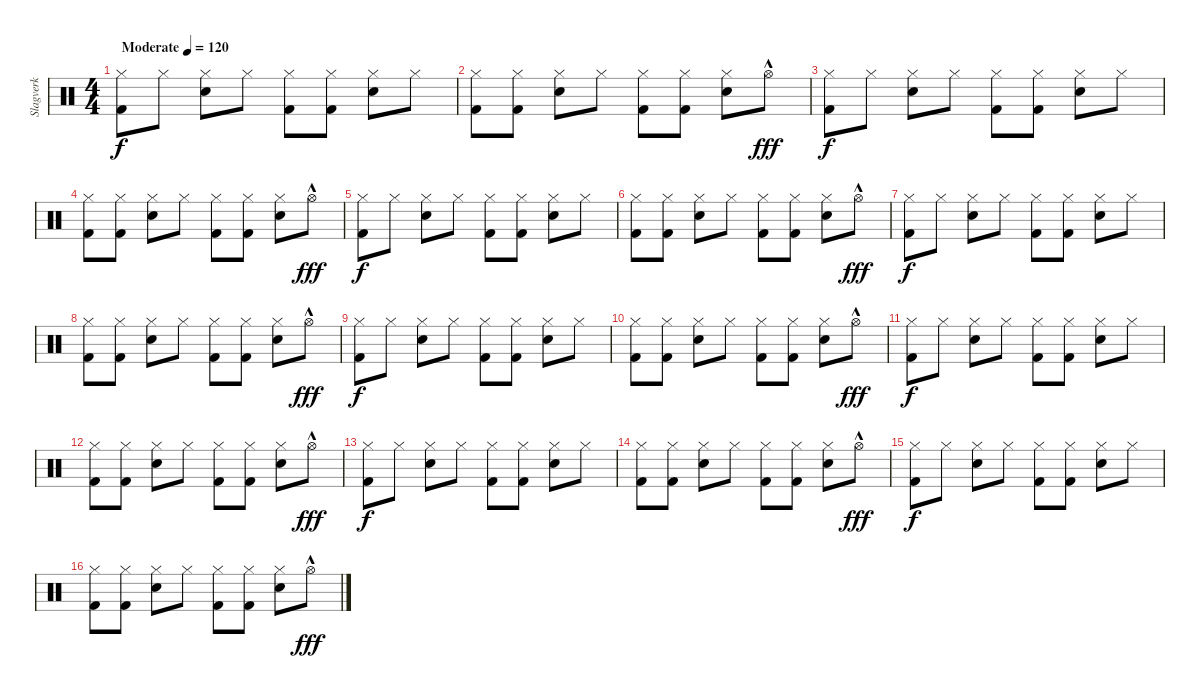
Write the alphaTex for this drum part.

\track ("Slagverk" "Slagverk") {instrument percussion}
\staff {score}
\articulation defaults
\ts (4 4)
\tempo (120 "Moderate")
\clef neutral
\ks c
("Hi-Hat (closed)" "Kick (hit) 2").8{dy f} "Hi-Hat (closed)".8 ("Hi-Hat (closed)" "Snare (hit) 2").8 "Hi-Hat (closed)".8 ("Hi-Hat (closed)" "Kick (hit) 2").8 ("Hi-Hat (closed)" "Kick (hit) 2").8 ("Hi-Hat (closed)" "Snare (hit) 2").8 "Hi-Hat (closed)".8 |
("Hi-Hat (closed)" "Kick (hit) 2").8 ("Hi-Hat (closed)" "Kick (hit) 2").8 ("Hi-Hat (closed)" "Snare (hit) 2").8 "Hi-Hat (closed)".8 ("Hi-Hat (closed)" "Kick (hit) 2").8 ("Hi-Hat (closed)" "Kick (hit) 2").8 ("Hi-Hat (closed)" "Snare (hit) 2").8 "Hi-Hat (open)"{hac}.8{dy fff} |
("Hi-Hat (closed)" "Kick (hit) 2").8{dy f} "Hi-Hat (closed)".8 ("Hi-Hat (closed)" "Snare (hit) 2").8 "Hi-Hat (closed)".8 ("Hi-Hat (closed)" "Kick (hit) 2").8 ("Hi-Hat (closed)" "Kick (hit) 2").8 ("Hi-Hat (closed)" "Snare (hit) 2").8 "Hi-Hat (closed)".8 |
("Hi-Hat (closed)" "Kick (hit) 2").8 ("Hi-Hat (closed)" "Kick (hit) 2").8 ("Hi-Hat (closed)" "Snare (hit) 2").8 "Hi-Hat (closed)".8 ("Hi-Hat (closed)" "Kick (hit) 2").8 ("Hi-Hat (closed)" "Kick (hit) 2").8 ("Hi-Hat (closed)" "Snare (hit) 2").8 "Hi-Hat (open)"{hac}.8{dy fff} |
("Hi-Hat (closed)" "Kick (hit) 2").8{dy f} "Hi-Hat (closed)".8 ("Hi-Hat (closed)" "Snare (hit) 2").8 "Hi-Hat (closed)".8 ("Hi-Hat (closed)" "Kick (hit) 2").8 ("Hi-Hat (closed)" "Kick (hit) 2").8 ("Hi-Hat (closed)" "Snare (hit) 2").8 "Hi-Hat (closed)".8 |
("Hi-Hat (closed)" "Kick (hit) 2").8 ("Hi-Hat (closed)" "Kick (hit) 2").8 ("Hi-Hat (closed)" "Snare (hit) 2").8 "Hi-Hat (closed)".8 ("Hi-Hat (closed)" "Kick (hit) 2").8 ("Hi-Hat (closed)" "Kick (hit) 2").8 ("Hi-Hat (closed)" "Snare (hit) 2").8 "Hi-Hat (open)"{hac}.8{dy fff} |
("Hi-Hat (closed)" "Kick (hit) 2").8{dy f} "Hi-Hat (closed)".8 ("Hi-Hat (closed)" "Snare (hit) 2").8 "Hi-Hat (closed)".8 ("Hi-Hat (closed)" "Kick (hit) 2").8 ("Hi-Hat (closed)" "Kick (hit) 2").8 ("Hi-Hat (closed)" "Snare (hit) 2").8 "Hi-Hat (closed)".8 |
("Hi-Hat (closed)" "Kick (hit) 2").8 ("Hi-Hat (closed)" "Kick (hit) 2").8 ("Hi-Hat (closed)" "Snare (hit) 2").8 "Hi-Hat (closed)".8 ("Hi-Hat (closed)" "Kick (hit) 2").8 ("Hi-Hat (closed)" "Kick (hit) 2").8 ("Hi-Hat (closed)" "Snare (hit) 2").8 "Hi-Hat (open)"{hac}.8{dy fff} |
("Hi-Hat (closed)" "Kick (hit) 2").8{dy f} "Hi-Hat (closed)".8 ("Hi-Hat (closed)" "Snare (hit) 2").8 "Hi-Hat (closed)".8 ("Hi-Hat (closed)" "Kick (hit) 2").8 ("Hi-Hat (closed)" "Kick (hit) 2").8 ("Hi-Hat (closed)" "Snare (hit) 2").8 "Hi-Hat (closed)".8 |
("Hi-Hat (closed)" "Kick (hit) 2").8 ("Hi-Hat (closed)" "Kick (hit) 2").8 ("Hi-Hat (closed)" "Snare (hit) 2").8 "Hi-Hat (closed)".8 ("Hi-Hat (closed)" "Kick (hit) 2").8 ("Hi-Hat (closed)" "Kick (hit) 2").8 ("Hi-Hat (closed)" "Snare (hit) 2").8 "Hi-Hat (open)"{hac}.8{dy fff} |
("Hi-Hat (closed)" "Kick (hit) 2").8{dy f} "Hi-Hat (closed)".8 ("Hi-Hat (closed)" "Snare (hit) 2").8 "Hi-Hat (closed)".8 ("Hi-Hat (closed)" "Kick (hit) 2").8 ("Hi-Hat (closed)" "Kick (hit) 2").8 ("Hi-Hat (closed)" "Snare (hit) 2").8 "Hi-Hat (closed)".8 |
("Hi-Hat (closed)" "Kick (hit) 2").8 ("Hi-Hat (closed)" "Kick (hit) 2").8 ("Hi-Hat (closed)" "Snare (hit) 2").8 "Hi-Hat (closed)".8 ("Hi-Hat (closed)" "Kick (hit) 2").8 ("Hi-Hat (closed)" "Kick (hit) 2").8 ("Hi-Hat (closed)" "Snare (hit) 2").8 "Hi-Hat (open)"{hac}.8{dy fff} |
("Hi-Hat (closed)" "Kick (hit) 2").8{dy f} "Hi-Hat (closed)".8 ("Hi-Hat (closed)" "Snare (hit) 2").8 "Hi-Hat (closed)".8 ("Hi-Hat (closed)" "Kick (hit) 2").8 ("Hi-Hat (closed)" "Kick (hit) 2").8 ("Hi-Hat (closed)" "Snare (hit) 2").8 "Hi-Hat (closed)".8 |
("Hi-Hat (closed)" "Kick (hit) 2").8 ("Hi-Hat (closed)" "Kick (hit) 2").8 ("Hi-Hat (closed)" "Snare (hit) 2").8 "Hi-Hat (closed)".8 ("Hi-Hat (closed)" "Kick (hit) 2").8 ("Hi-Hat (closed)" "Kick (hit) 2").8 ("Hi-Hat (closed)" "Snare (hit) 2").8 "Hi-Hat (open)"{hac}.8{dy fff} |
("Hi-Hat (closed)" "Kick (hit) 2").8{dy f} "Hi-Hat (closed)".8 ("Hi-Hat (closed)" "Snare (hit) 2").8 "Hi-Hat (closed)".8 ("Hi-Hat (closed)" "Kick (hit) 2").8 ("Hi-Hat (closed)" "Kick (hit) 2").8 ("Hi-Hat (closed)" "Snare (hit) 2").8 "Hi-Hat (closed)".8 |
("Hi-Hat (closed)" "Kick (hit) 2").8 ("Hi-Hat (closed)" "Kick (hit) 2").8 ("Hi-Hat (closed)" "Snare (hit) 2").8 "Hi-Hat (closed)".8 ("Hi-Hat (closed)" "Kick (hit) 2").8 ("Hi-Hat (closed)" "Kick (hit) 2").8 ("Hi-Hat (closed)" "Snare (hit) 2").8 "Hi-Hat (open)"{hac}.8{dy fff}
